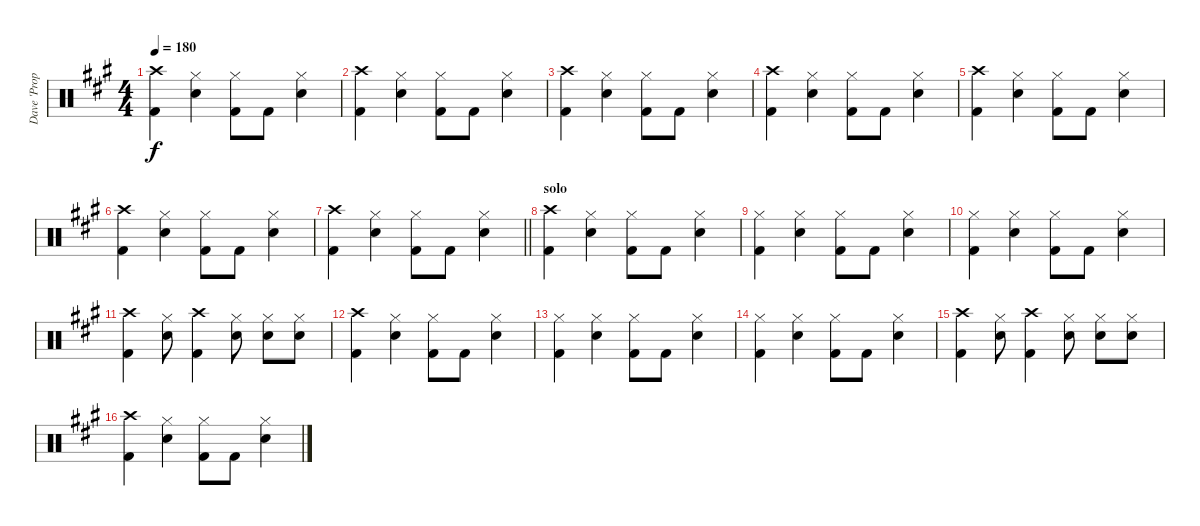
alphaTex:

\track ("Dave 'Proper' Caution" "Dave 'Prop") {instrument percussion}
\staff {score}
\articulation defaults
\ts (4 4)
\tempo 180
\clef neutral
\ks a
("Crash high (hit)" "Kick (hit) 2").4{dy f} ("Hi-Hat (closed)" "Electric Snare (hit)").4 ("Hi-Hat (closed)" "Kick (hit) 2").8 "Kick (hit) 2".8 ("Hi-Hat (closed)" "Electric Snare (hit)").4 |
("Crash high (hit)" "Kick (hit) 2").4 ("Hi-Hat (closed)" "Electric Snare (hit)").4 ("Hi-Hat (closed)" "Kick (hit) 2").8 "Kick (hit) 2".8 ("Hi-Hat (closed)" "Electric Snare (hit)").4 |
("Crash high (hit)" "Kick (hit) 2").4 ("Hi-Hat (closed)" "Electric Snare (hit)").4 ("Hi-Hat (closed)" "Kick (hit) 2").8 "Kick (hit) 2".8 ("Hi-Hat (closed)" "Electric Snare (hit)").4 |
("Crash high (hit)" "Kick (hit) 2").4 ("Hi-Hat (closed)" "Electric Snare (hit)").4 ("Hi-Hat (closed)" "Kick (hit) 2").8 "Kick (hit) 2".8 ("Hi-Hat (closed)" "Electric Snare (hit)").4 |
("Crash high (hit)" "Kick (hit) 2").4 ("Hi-Hat (closed)" "Electric Snare (hit)").4 ("Hi-Hat (closed)" "Kick (hit) 2").8 "Kick (hit) 2".8 ("Hi-Hat (closed)" "Electric Snare (hit)").4 |
("Crash high (hit)" "Kick (hit) 2").4 ("Hi-Hat (closed)" "Electric Snare (hit)").4 ("Hi-Hat (closed)" "Kick (hit) 2").8 "Kick (hit) 2".8 ("Hi-Hat (closed)" "Electric Snare (hit)").4 |
\barLineRight lightlight
("Crash high (hit)" "Kick (hit) 2").4 ("Hi-Hat (closed)" "Electric Snare (hit)").4 ("Hi-Hat (closed)" "Kick (hit) 2").8 "Kick (hit) 2".8 ("Hi-Hat (closed)" "Electric Snare (hit)").4 |
\section ("" "solo")
("Crash high (hit)" "Kick (hit) 2").4 ("Hi-Hat (closed)" "Electric Snare (hit)").4 ("Hi-Hat (closed)" "Kick (hit) 2").8 "Kick (hit) 2".8 ("Hi-Hat (closed)" "Electric Snare (hit)").4 |
("Hi-Hat (closed)" "Kick (hit) 2").4 ("Hi-Hat (closed)" "Electric Snare (hit)").4 ("Hi-Hat (closed)" "Kick (hit) 2").8 "Kick (hit) 2".8 ("Hi-Hat (closed)" "Electric Snare (hit)").4 |
("Hi-Hat (closed)" "Kick (hit) 2").4 ("Hi-Hat (closed)" "Electric Snare (hit)").4 ("Hi-Hat (closed)" "Kick (hit) 2").8 "Kick (hit) 2".8 ("Hi-Hat (closed)" "Electric Snare (hit)").4 |
("Crash high (hit)" "Kick (hit) 2").4 ("Hi-Hat (closed)" "Electric Snare (hit)").8 ("Crash high (hit)" "Kick (hit) 2").4 ("Hi-Hat (closed)" "Electric Snare (hit)").8 ("Hi-Hat (closed)" "Electric Snare (hit)").8 ("Hi-Hat (closed)" "Electric Snare (hit)").8 |
("Crash high (hit)" "Kick (hit) 2").4 ("Hi-Hat (closed)" "Electric Snare (hit)").4 ("Hi-Hat (closed)" "Kick (hit) 2").8 "Kick (hit) 2".8 ("Hi-Hat (closed)" "Electric Snare (hit)").4 |
("Hi-Hat (closed)" "Kick (hit) 2").4 ("Hi-Hat (closed)" "Electric Snare (hit)").4 ("Hi-Hat (closed)" "Kick (hit) 2").8 "Kick (hit) 2".8 ("Hi-Hat (closed)" "Electric Snare (hit)").4 |
("Hi-Hat (closed)" "Kick (hit) 2").4 ("Hi-Hat (closed)" "Electric Snare (hit)").4 ("Hi-Hat (closed)" "Kick (hit) 2").8 "Kick (hit) 2".8 ("Hi-Hat (closed)" "Electric Snare (hit)").4 |
("Crash high (hit)" "Kick (hit) 2").4 ("Hi-Hat (closed)" "Electric Snare (hit)").8 ("Crash high (hit)" "Kick (hit) 2").4 ("Hi-Hat (closed)" "Electric Snare (hit)").8 ("Hi-Hat (closed)" "Electric Snare (hit)").8 ("Hi-Hat (closed)" "Electric Snare (hit)").8 |
("Crash high (hit)" "Kick (hit) 2").4 ("Hi-Hat (closed)" "Electric Snare (hit)").4 ("Hi-Hat (closed)" "Kick (hit) 2").8 "Kick (hit) 2".8 ("Hi-Hat (closed)" "Electric Snare (hit)").4
